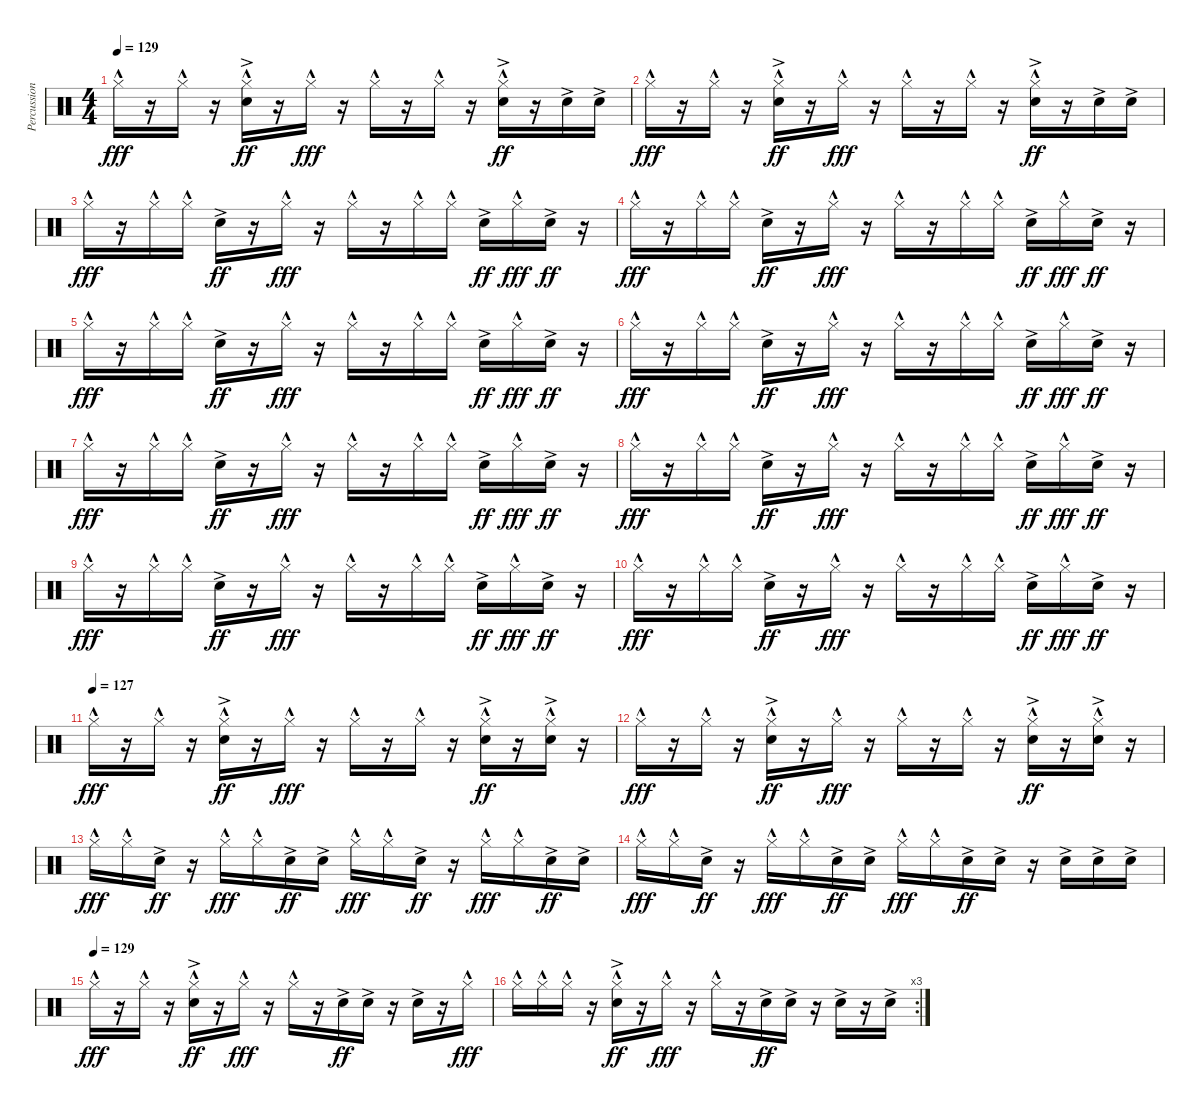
\track ("Percussion" "Percussion") {instrument percussion}
\staff {score}
\articulation defaults
\ts (4 4)
\tempo 129
\clef neutral
\ks c "Hi-Hat (closed)"{hac}.16{dy fff}
r.16 "Hi-Hat (closed)"{hac}.16 r.16 ("Hi-Hat (closed)"{hac} "Snare (hit) 2"{ac}).16{dy ff} r.16 "Hi-Hat (closed)"{hac}.16{dy fff} r.16 "Hi-Hat (closed)"{hac}.16 r.16 "Hi-Hat (closed)"{hac}.16 r.16 ("Hi-Hat (closed)"{hac} "Snare (hit) 2"{ac}).16{dy ff} r.16 "Snare (hit) 2"{ac}.16 "Snare (hit) 2"{ac}.16 |
"Hi-Hat (closed)"{hac}.16{dy fff} r.16 "Hi-Hat (closed)"{hac}.16 r.16 ("Hi-Hat (closed)"{hac} "Snare (hit) 2"{ac}).16{dy ff} r.16 "Hi-Hat (closed)"{hac}.16{dy fff} r.16 "Hi-Hat (closed)"{hac}.16 r.16 "Hi-Hat (closed)"{hac}.16 r.16 ("Hi-Hat (closed)"{hac} "Snare (hit) 2"{ac}).16{dy ff} r.16 "Snare (hit) 2"{ac}.16 "Snare (hit) 2"{ac}.16 |
"Hi-Hat (closed)"{hac}.16{dy fff} r.16 "Hi-Hat (closed)"{hac}.16 "Hi-Hat (closed)"{hac}.16 "Snare (hit) 2"{ac}.16{dy ff} r.16 "Hi-Hat (closed)"{hac}.16{dy fff} r.16 "Hi-Hat (closed)"{hac}.16 r.16 "Hi-Hat (closed)"{hac}.16 "Hi-Hat (closed)"{hac}.16 "Snare (hit) 2"{ac}.16{dy ff} "Hi-Hat (closed)"{hac}.16{dy fff} "Snare (hit) 2"{ac}.16{dy ff} r.16 |
"Hi-Hat (closed)"{hac}.16{dy fff} r.16 "Hi-Hat (closed)"{hac}.16 "Hi-Hat (closed)"{hac}.16 "Snare (hit) 2"{ac}.16{dy ff} r.16 "Hi-Hat (closed)"{hac}.16{dy fff} r.16 "Hi-Hat (closed)"{hac}.16 r.16 "Hi-Hat (closed)"{hac}.16 "Hi-Hat (closed)"{hac}.16 "Snare (hit) 2"{ac}.16{dy ff} "Hi-Hat (closed)"{hac}.16{dy fff} "Snare (hit) 2"{ac}.16{dy ff} r.16 |
"Hi-Hat (closed)"{hac}.16{dy fff} r.16 "Hi-Hat (closed)"{hac}.16 "Hi-Hat (closed)"{hac}.16 "Snare (hit) 2"{ac}.16{dy ff} r.16 "Hi-Hat (closed)"{hac}.16{dy fff} r.16 "Hi-Hat (closed)"{hac}.16 r.16 "Hi-Hat (closed)"{hac}.16 "Hi-Hat (closed)"{hac}.16 "Snare (hit) 2"{ac}.16{dy ff} "Hi-Hat (closed)"{hac}.16{dy fff} "Snare (hit) 2"{ac}.16{dy ff} r.16 |
"Hi-Hat (closed)"{hac}.16{dy fff} r.16 "Hi-Hat (closed)"{hac}.16 "Hi-Hat (closed)"{hac}.16 "Snare (hit) 2"{ac}.16{dy ff} r.16 "Hi-Hat (closed)"{hac}.16{dy fff} r.16 "Hi-Hat (closed)"{hac}.16 r.16 "Hi-Hat (closed)"{hac}.16 "Hi-Hat (closed)"{hac}.16 "Snare (hit) 2"{ac}.16{dy ff} "Hi-Hat (closed)"{hac}.16{dy fff} "Snare (hit) 2"{ac}.16{dy ff} r.16 |
"Hi-Hat (closed)"{hac}.16{dy fff} r.16 "Hi-Hat (closed)"{hac}.16 "Hi-Hat (closed)"{hac}.16 "Snare (hit) 2"{ac}.16{dy ff} r.16 "Hi-Hat (closed)"{hac}.16{dy fff} r.16 "Hi-Hat (closed)"{hac}.16 r.16 "Hi-Hat (closed)"{hac}.16 "Hi-Hat (closed)"{hac}.16 "Snare (hit) 2"{ac}.16{dy ff} "Hi-Hat (closed)"{hac}.16{dy fff} "Snare (hit) 2"{ac}.16{dy ff} r.16 |
"Hi-Hat (closed)"{hac}.16{dy fff} r.16 "Hi-Hat (closed)"{hac}.16 "Hi-Hat (closed)"{hac}.16 "Snare (hit) 2"{ac}.16{dy ff} r.16 "Hi-Hat (closed)"{hac}.16{dy fff} r.16 "Hi-Hat (closed)"{hac}.16 r.16 "Hi-Hat (closed)"{hac}.16 "Hi-Hat (closed)"{hac}.16 "Snare (hit) 2"{ac}.16{dy ff} "Hi-Hat (closed)"{hac}.16{dy fff} "Snare (hit) 2"{ac}.16{dy ff} r.16 |
"Hi-Hat (closed)"{hac}.16{dy fff} r.16 "Hi-Hat (closed)"{hac}.16 "Hi-Hat (closed)"{hac}.16 "Snare (hit) 2"{ac}.16{dy ff} r.16 "Hi-Hat (closed)"{hac}.16{dy fff} r.16 "Hi-Hat (closed)"{hac}.16 r.16 "Hi-Hat (closed)"{hac}.16 "Hi-Hat (closed)"{hac}.16 "Snare (hit) 2"{ac}.16{dy ff} "Hi-Hat (closed)"{hac}.16{dy fff} "Snare (hit) 2"{ac}.16{dy ff} r.16 |
"Hi-Hat (closed)"{hac}.16{dy fff} r.16 "Hi-Hat (closed)"{hac}.16 "Hi-Hat (closed)"{hac}.16 "Snare (hit) 2"{ac}.16{dy ff} r.16 "Hi-Hat (closed)"{hac}.16{dy fff} r.16 "Hi-Hat (closed)"{hac}.16 r.16 "Hi-Hat (closed)"{hac}.16 "Hi-Hat (closed)"{hac}.16 "Snare (hit) 2"{ac}.16{dy ff} "Hi-Hat (closed)"{hac}.16{dy fff} "Snare (hit) 2"{ac}.16{dy ff} r.16 |
\tempo (127)
"Hi-Hat (closed)"{hac}.16{dy fff} r.16 "Hi-Hat (closed)"{hac}.16 r.16 ("Hi-Hat (closed)"{hac} "Snare (hit) 2"{ac}).16{dy ff} r.16 "Hi-Hat (closed)"{hac}.16{dy fff} r.16 "Hi-Hat (closed)"{hac}.16 r.16 "Hi-Hat (closed)"{hac}.16 r.16 ("Hi-Hat (closed)"{hac} "Snare (hit) 2"{ac}).16{dy ff} r.16 ("Hi-Hat (closed)"{hac} "Snare (hit) 2"{ac}).16 r.16 |
"Hi-Hat (closed)"{hac}.16{dy fff} r.16 "Hi-Hat (closed)"{hac}.16 r.16 ("Hi-Hat (closed)"{hac} "Snare (hit) 2"{ac}).16{dy ff} r.16 "Hi-Hat (closed)"{hac}.16{dy fff} r.16 "Hi-Hat (closed)"{hac}.16 r.16 "Hi-Hat (closed)"{hac}.16 r.16 ("Hi-Hat (closed)"{hac} "Snare (hit) 2"{ac}).16{dy ff} r.16 ("Hi-Hat (closed)"{hac} "Snare (hit) 2"{ac}).16 r.16 |
"Hi-Hat (closed)"{hac}.16{dy fff} "Hi-Hat (closed)"{hac}.16 "Snare (hit) 2"{ac}.16{dy ff} r.16 "Hi-Hat (closed)"{hac}.16{dy fff} "Hi-Hat (closed)"{hac}.16 "Snare (hit) 2"{ac}.16{dy ff} "Snare (hit) 2"{ac}.16 "Hi-Hat (closed)"{hac}.16{dy fff} "Hi-Hat (closed)"{hac}.16 "Snare (hit) 2"{ac}.16{dy ff} r.16 "Hi-Hat (closed)"{hac}.16{dy fff} "Hi-Hat (closed)"{hac}.16 "Snare (hit) 2"{ac}.16{dy ff} "Snare (hit) 2"{ac}.16 |
"Hi-Hat (closed)"{hac}.16{dy fff} "Hi-Hat (closed)"{hac}.16 "Snare (hit) 2"{ac}.16{dy ff} r.16 "Hi-Hat (closed)"{hac}.16{dy fff} "Hi-Hat (closed)"{hac}.16 "Snare (hit) 2"{ac}.16{dy ff} "Snare (hit) 2"{ac}.16 "Hi-Hat (closed)"{hac}.16{dy fff} "Hi-Hat (closed)"{hac}.16 "Snare (hit) 2"{ac}.16{dy ff} "Snare (hit) 2"{ac}.16 r.16 "Snare (hit) 2"{ac}.16 "Snare (hit) 2"{ac}.16 "Snare (hit) 2"{ac}.16 |
\tempo (129)
"Hi-Hat (closed)"{hac}.16{dy fff} r.16 "Hi-Hat (closed)"{hac}.16 r.16 ("Hi-Hat (closed)"{hac} "Snare (hit) 2"{ac}).16{dy ff} r.16 "Hi-Hat (closed)"{hac}.16{dy fff} r.16 "Hi-Hat (closed)"{hac}.16 r.16 "Snare (hit) 2"{ac}.16{dy ff} "Snare (hit) 2"{ac}.16 r.16 "Snare (hit) 2"{ac}.16 r.16 "Hi-Hat (closed)"{hac}.16{dy fff} |
\rc 3 "Hi-Hat (closed)"{hac}.16 "Hi-Hat (closed)"{hac}.16 "Hi-Hat (closed)"{hac}.16
r.16 ("Hi-Hat (closed)"{hac} "Snare (hit) 2"{ac}).16{dy ff} r.16 "Hi-Hat (closed)"{hac}.16{dy fff} r.16 "Hi-Hat (closed)"{hac}.16 r.16 "Snare (hit) 2"{ac}.16{dy ff} "Snare (hit) 2"{ac}.16 r.16 "Snare (hit) 2"{ac}.16 r.16 "Snare (hit) 2"{ac}.16
